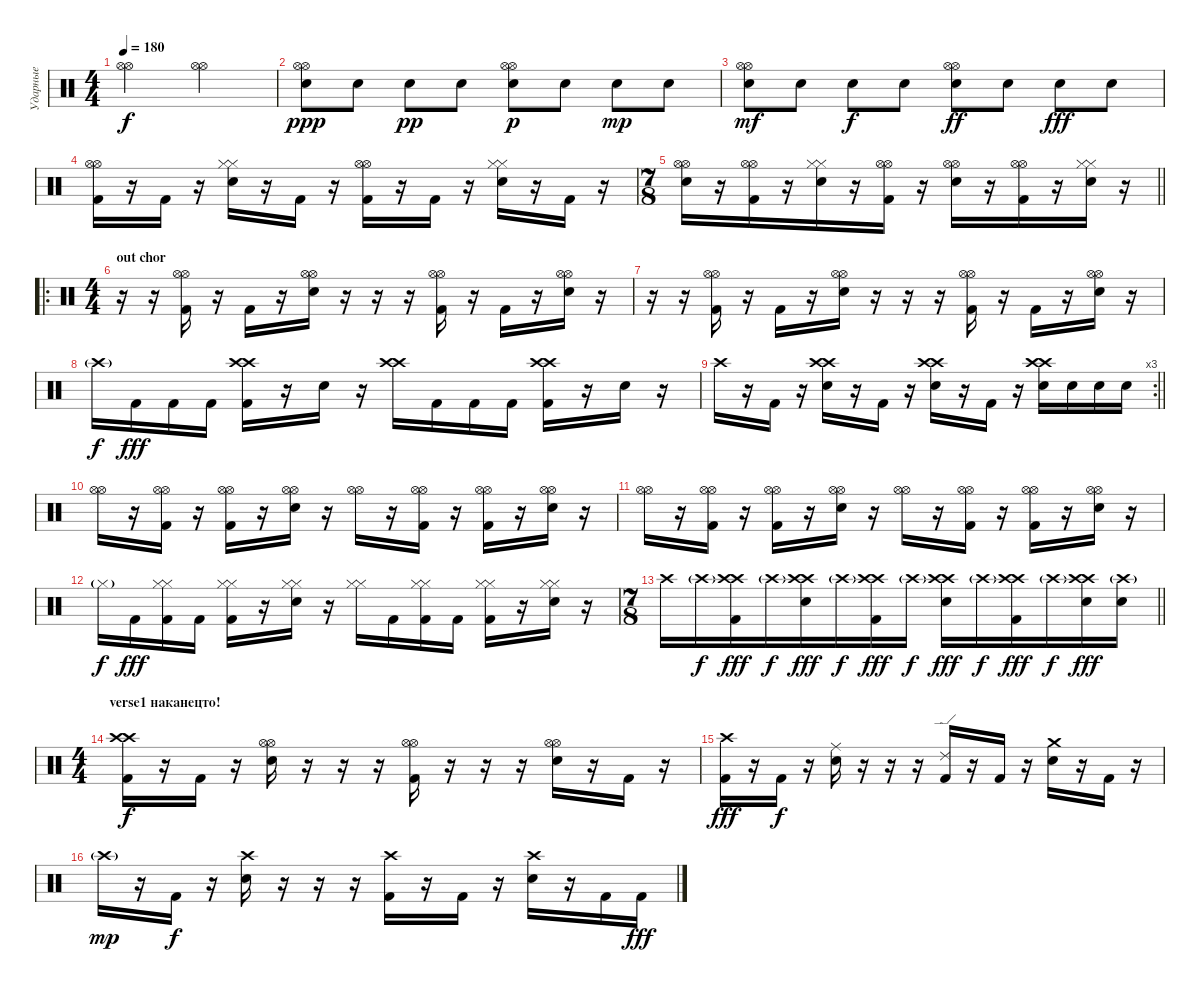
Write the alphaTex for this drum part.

\track ("Ударные" "Ударные") {instrument percussion}
\staff {score}
\articulation defaults
\ts (4 4)
\tempo 180
\clef neutral
\ks c
("Hi-Hat (open)" "Hi-Hat (open)").2{dy f} ("Hi-Hat (open)" "Hi-Hat (open)").2 |
("Hi-Hat (open)" "Hi-Hat (open)" "Electric Snare (hit)").8{dy ppp} "Electric Snare (hit)".8 "Electric Snare (hit)".8{dy pp} "Electric Snare (hit)".8 ("Hi-Hat (open)" "Hi-Hat (open)" "Electric Snare (hit)").8{dy p} "Electric Snare (hit)".8 "Electric Snare (hit)".8{dy mp} "Electric Snare (hit)".8 |
("Hi-Hat (open)" "Hi-Hat (open)" "Electric Snare (hit)").8{dy mf} "Electric Snare (hit)".8 "Electric Snare (hit)".8{dy f} "Electric Snare (hit)".8 ("Hi-Hat (open)" "Hi-Hat (open)" "Electric Snare (hit)").8{dy ff} "Electric Snare (hit)".8 "Electric Snare (hit)".8{dy fff} "Electric Snare (hit)".8 |
("Hi-Hat (open)" "Hi-Hat (open)" "Kick (hit) 2").16 r.16 "Kick (hit) 2".16 r.16 ("Hi-Hat (closed)" "Hi-Hat (closed)" "Electric Snare (hit)").16 r.16 "Kick (hit) 2".16 r.16 ("Hi-Hat (open)" "Hi-Hat (open)" "Kick (hit) 2").16 r.16 "Kick (hit) 2".16 r.16 ("Hi-Hat (closed)" "Hi-Hat (closed)" "Electric Snare (hit)").16 r.16 "Kick (hit) 2".16 r.16 |
\ts (7 8)
\barLineRight lightlight
("Hi-Hat (open)" "Hi-Hat (open)" "Electric Snare (hit)").16 r.16 ("Hi-Hat (open)" "Hi-Hat (open)" "Kick (hit) 2").16 r.16 ("Hi-Hat (closed)" "Hi-Hat (closed)" "Electric Snare (hit)").16 r.16 ("Hi-Hat (open)" "Hi-Hat (open)" "Kick (hit) 2").16 r.16 ("Hi-Hat (open)" "Hi-Hat (open)" "Electric Snare (hit)").16 r.16 ("Hi-Hat (open)" "Hi-Hat (open)" "Kick (hit) 2").16 r.16 ("Hi-Hat (closed)" "Hi-Hat (closed)" "Electric Snare (hit)").16 r.16 |
\ro
\ts (4 4)
\section ("" "out chor")
r.16 r.16 ("Hi-Hat (open)" "Hi-Hat (open)" "Kick (hit) 2").16 r.16 "Kick (hit) 2".16 r.16 ("Hi-Hat (open)" "Hi-Hat (open)" "Electric Snare (hit)").16 r.16 r.16 r.16 ("Hi-Hat (open)" "Hi-Hat (open)" "Kick (hit) 2").16 r.16 "Kick (hit) 2".16 r.16 ("Hi-Hat (open)" "Hi-Hat (open)" "Electric Snare (hit)").16 r.16 |
r.16 r.16 ("Hi-Hat (open)" "Hi-Hat (open)" "Kick (hit) 2").16 r.16 "Kick (hit) 2".16 r.16 ("Hi-Hat (open)" "Hi-Hat (open)" "Electric Snare (hit)").16 r.16 r.16 r.16 ("Hi-Hat (open)" "Hi-Hat (open)" "Kick (hit) 2").16 r.16 "Kick (hit) 2".16 r.16 ("Hi-Hat (open)" "Hi-Hat (open)" "Electric Snare (hit)").16 r.16 |
"Crash high (hit)"{g}.16{dy f} "Kick (hit) 2".16{dy fff} "Kick (hit) 2".16 "Kick (hit) 2".16 ("Crash high (hit)" "Crash high (hit)" "Kick (hit) 2").16 r.16 "Electric Snare (hit)".16 r.16 ("Crash high (hit)" "Crash high (hit)").16 "Kick (hit) 2".16 "Kick (hit) 2".16 "Kick (hit) 2".16 ("Crash high (hit)" "Crash high (hit)" "Kick (hit) 2").16 r.16 "Electric Snare (hit)".16 r.16 |
\rc 3
\barLineRight lightlight "Crash high (hit)".16
r.16 "Kick (hit) 2".16 r.16 ("Crash high (hit)" "Crash high (hit)" "Electric Snare (hit)").16 r.16 "Kick (hit) 2".16 r.16 ("Crash high (hit)" "Crash high (hit)" "Electric Snare (hit)").16 r.16 "Kick (hit) 2".16 r.16 ("Crash high (hit)" "Crash high (hit)" "Electric Snare (hit)").16 "Electric Snare (hit)".16 "Electric Snare (hit)".16 "Electric Snare (hit)".16 |
("Hi-Hat (open)" "Hi-Hat (open)").16 r.16 ("Hi-Hat (open)" "Hi-Hat (open)" "Kick (hit) 2").16 r.16 ("Hi-Hat (open)" "Hi-Hat (open)" "Kick (hit) 2").16 r.16 ("Hi-Hat (open)" "Hi-Hat (open)" "Electric Snare (hit)").16 r.16 ("Hi-Hat (open)" "Hi-Hat (open)").16 r.16 ("Hi-Hat (open)" "Hi-Hat (open)" "Kick (hit) 2").16 r.16 ("Hi-Hat (open)" "Hi-Hat (open)" "Kick (hit) 2").16 r.16 ("Hi-Hat (open)" "Hi-Hat (open)" "Electric Snare (hit)").16 r.16 |
("Hi-Hat (open)" "Hi-Hat (open)").16 r.16 ("Hi-Hat (open)" "Hi-Hat (open)" "Kick (hit) 2").16 r.16 ("Hi-Hat (open)" "Hi-Hat (open)" "Kick (hit) 2").16 r.16 ("Hi-Hat (open)" "Hi-Hat (open)" "Electric Snare (hit)").16 r.16 ("Hi-Hat (open)" "Hi-Hat (open)").16 r.16 ("Hi-Hat (open)" "Hi-Hat (open)" "Kick (hit) 2").16 r.16 ("Hi-Hat (open)" "Hi-Hat (open)" "Kick (hit) 2").16 r.16 ("Hi-Hat (open)" "Hi-Hat (open)" "Electric Snare (hit)").16 r.16 |
"Hi-Hat (closed)"{g}.16{dy f} "Kick (hit) 2".16{dy fff} ("Hi-Hat (closed)" "Hi-Hat (closed)" "Kick (hit) 2").16 "Kick (hit) 2".16 ("Hi-Hat (closed)" "Hi-Hat (closed)" "Kick (hit) 2").16 r.16 ("Hi-Hat (closed)" "Hi-Hat (closed)" "Electric Snare (hit)").16 r.16 ("Hi-Hat (closed)" "Hi-Hat (closed)").16 "Kick (hit) 2".16 ("Hi-Hat (closed)" "Hi-Hat (closed)" "Kick (hit) 2").16 "Kick (hit) 2".16 ("Hi-Hat (closed)" "Hi-Hat (closed)" "Kick (hit) 2").16 r.16 ("Hi-Hat (closed)" "Hi-Hat (closed)" "Electric Snare (hit)").16 r.16 |
\ts (7 8)
\barLineRight lightlight "Crash high (hit)".16 "Crash high (hit)"{g}.16{dy f}
("Crash high (hit)" "Crash high (hit)" "Kick (hit) 2").16{dy fff} "Crash high (hit)"{g}.16{dy f} ("Crash high (hit)" "Crash high (hit)" "Electric Snare (hit)").16{dy fff} "Crash high (hit)"{g}.16{dy f} ("Crash high (hit)" "Crash high (hit)" "Kick (hit) 2").16{dy fff} "Crash high (hit)"{g}.16{dy f} ("Crash high (hit)" "Crash high (hit)" "Electric Snare (hit)").16{dy fff} "Crash high (hit)"{g}.16{dy f} ("Crash high (hit)" "Crash high (hit)" "Kick (hit) 2").16{dy fff} "Crash high (hit)"{g}.16{dy f} ("Crash high (hit)" "Crash high (hit)" "Electric Snare (hit)").16{dy fff} ("Crash high (hit)"{g} "Electric Snare (hit)").16 |
\ts (4 4)
\section ("" "verse1 наканецто!")
("Crash high (hit)" "Crash high (hit)" "Kick (hit) 2").16{dy f} r.16 "Kick (hit) 2".16 r.16 ("Hi-Hat (open)" "Hi-Hat (open)" "Electric Snare (hit)").16 r.16 r.16 r.16 ("Hi-Hat (open)" "Hi-Hat (open)" "Kick (hit) 2").16 r.16 r.16 r.16 ("Hi-Hat (open)" "Hi-Hat (open)" "Electric Snare (hit)").16 r.16 "Kick (hit) 2".16 r.16 |
("Crash high (hit)" "Kick (hit) 2").16{dy fff} r.16 "Kick (hit) 2".16{dy f} r.16 ("Ride (middle)" "Electric Snare (hit)").16 r.16 r.16 r.16 ("Ride (edge) 2" "Kick (hit) 2").16 r.16 "Kick (hit) 2".16 r.16 ("Crash medium (hit)" "Electric Snare (hit)").16 r.16 "Kick (hit) 2".16 r.16 |
"Crash high (hit)"{g}.16{dy mp} r.16 "Kick (hit) 2".16{dy f} r.16 ("Crash high (hit)" "Electric Snare (hit)").16 r.16 r.16 r.16 ("Crash high (hit)" "Kick (hit) 2").16 r.16 "Kick (hit) 2".16 r.16 ("Crash high (hit)" "Electric Snare (hit)").16 r.16 "Kick (hit) 2".16 "Kick (hit) 2".16{dy fff}
